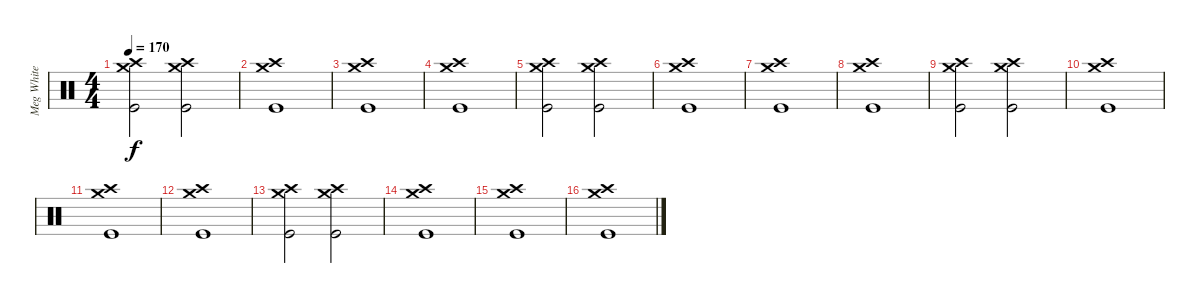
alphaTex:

\track ("Meg White" "Meg White") {instrument percussion}
\staff {score}
\articulation defaults
\ts (4 4)
\tempo 170
\clef neutral
\ks c
("Kick (hit)" "Crash high (hit)" "Crash medium (hit)").2{dy f} ("Kick (hit)" "Crash high (hit)" "Crash medium (hit)").2 |
("Kick (hit)" "Crash high (hit)" "Crash medium (hit)").1 |
("Kick (hit)" "Crash high (hit)" "Crash medium (hit)").1 |
("Kick (hit)" "Crash high (hit)" "Crash medium (hit)").1 |
("Kick (hit)" "Crash high (hit)" "Crash medium (hit)").2 ("Kick (hit)" "Crash high (hit)" "Crash medium (hit)").2 |
("Kick (hit)" "Crash high (hit)" "Crash medium (hit)").1 |
("Kick (hit)" "Crash high (hit)" "Crash medium (hit)").1 |
("Kick (hit)" "Crash high (hit)" "Crash medium (hit)").1 |
("Kick (hit)" "Crash high (hit)" "Crash medium (hit)").2 ("Kick (hit)" "Crash high (hit)" "Crash medium (hit)").2 |
("Kick (hit)" "Crash high (hit)" "Crash medium (hit)").1 |
("Kick (hit)" "Crash high (hit)" "Crash medium (hit)").1 |
("Kick (hit)" "Crash high (hit)" "Crash medium (hit)").1 |
("Kick (hit)" "Crash high (hit)" "Crash medium (hit)").2 ("Kick (hit)" "Crash high (hit)" "Crash medium (hit)").2 |
("Kick (hit)" "Crash high (hit)" "Crash medium (hit)").1 |
("Kick (hit)" "Crash high (hit)" "Crash medium (hit)").1 |
("Kick (hit)" "Crash high (hit)" "Crash medium (hit)").1
